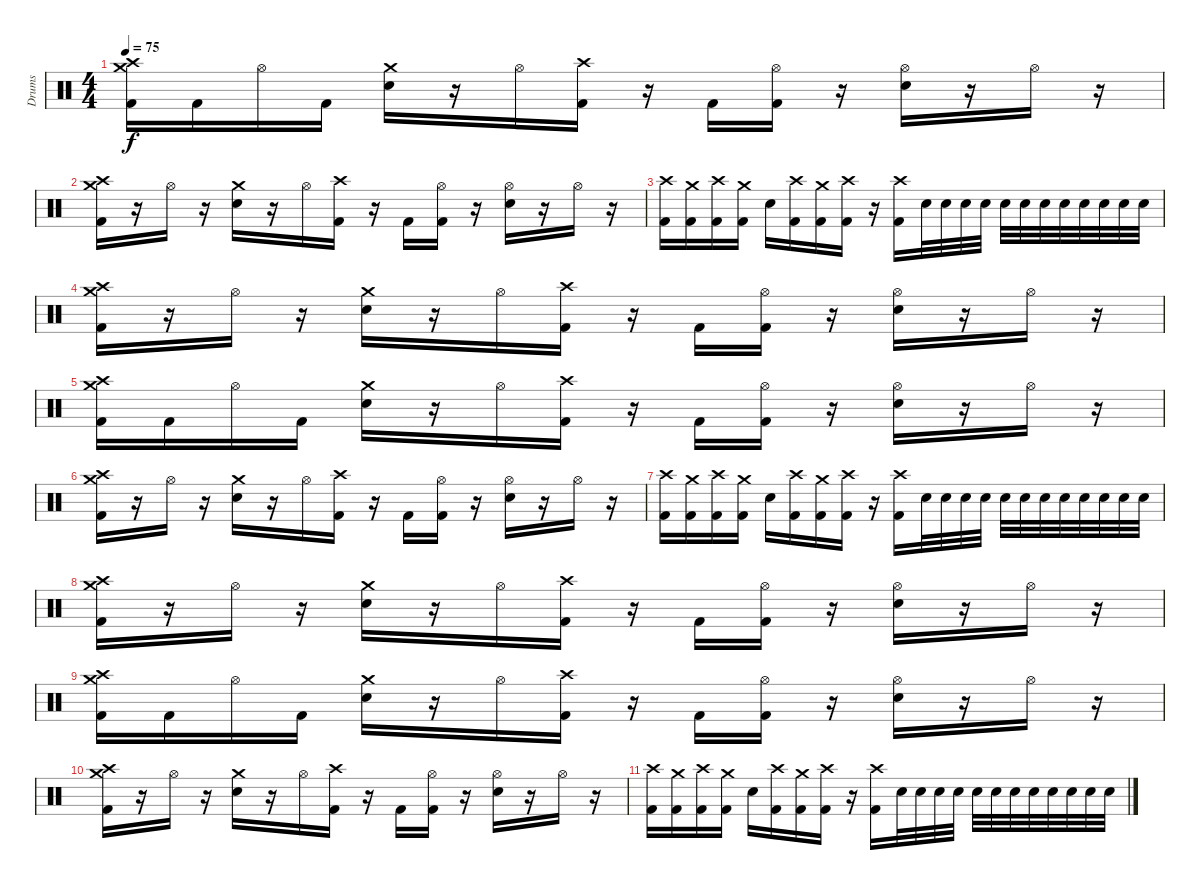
\track ("Drums" "Drums") {instrument percussion}
\staff {score}
\articulation defaults
\ts (4 4)
\tempo 75
\clef neutral
\ks c
("Crash medium (hit)" "Crash high (hit)" "Kick (hit) 2").16{dy f} "Kick (hit) 2".16 "Hi-Hat (open)".16 "Kick (hit) 2".16 ("Crash medium (hit)" "Electric Snare (hit)").16 r.16 "Hi-Hat (open)".16 ("Crash high (hit)" "Kick (hit) 2").16 r.16 "Kick (hit) 2".16 ("Hi-Hat (open)" "Kick (hit) 2").16 r.16 ("Hi-Hat (open)" "Electric Snare (hit)").16 r.16 "Hi-Hat (open)".16 r.16 |
("Crash medium (hit)" "Crash high (hit)" "Kick (hit) 2").16{volume 13} r.16 "Hi-Hat (open)".16 r.16 ("Crash medium (hit)" "Electric Snare (hit)").16 r.16 "Hi-Hat (open)".16 ("Crash high (hit)" "Kick (hit) 2").16 r.16 "Kick (hit) 2".16 ("Hi-Hat (open)" "Kick (hit) 2").16 r.16 ("Hi-Hat (open)" "Electric Snare (hit)").16 r.16 "Hi-Hat (open)".16 r.16 |
("Crash high (hit)" "Kick (hit) 2").16 ("Crash medium (hit)" "Kick (hit) 2").16 ("Crash high (hit)" "Kick (hit) 2").16 ("Crash medium (hit)" "Kick (hit) 2").16 "Electric Snare (hit)".16 ("Crash high (hit)" "Kick (hit) 2").16 ("Crash medium (hit)" "Kick (hit) 2").16 ("Crash high (hit)" "Kick (hit) 2").16 r.16 ("Crash high (hit)" "Kick (hit) 2").16 "Electric Snare (hit)".32 "Electric Snare (hit)".32 "Electric Snare (hit)".32 "Electric Snare (hit)".32 "Electric Snare (hit)".32 "Electric Snare (hit)".32 "Electric Snare (hit)".32 "Electric Snare (hit)".32 "Electric Snare (hit)".32 "Electric Snare (hit)".32 "Electric Snare (hit)".32 "Electric Snare (hit)".32 |
("Crash medium (hit)" "Crash high (hit)" "Kick (hit) 2").16{volume 13} r.16 "Hi-Hat (open)".16 r.16 ("Crash medium (hit)" "Electric Snare (hit)").16 r.16 "Hi-Hat (open)".16 ("Crash high (hit)" "Kick (hit) 2").16 r.16 "Kick (hit) 2".16 ("Hi-Hat (open)" "Kick (hit) 2").16 r.16 ("Hi-Hat (open)" "Electric Snare (hit)").16 r.16 "Hi-Hat (open)".16 r.16 |
("Crash medium (hit)" "Crash high (hit)" "Kick (hit) 2").16 "Kick (hit) 2".16 "Hi-Hat (open)".16 "Kick (hit) 2".16 ("Crash medium (hit)" "Electric Snare (hit)").16 r.16 "Hi-Hat (open)".16 ("Crash high (hit)" "Kick (hit) 2").16 r.16 "Kick (hit) 2".16 ("Hi-Hat (open)" "Kick (hit) 2").16 r.16 ("Hi-Hat (open)" "Electric Snare (hit)").16 r.16 "Hi-Hat (open)".16 r.16 |
("Crash medium (hit)" "Crash high (hit)" "Kick (hit) 2").16{volume 13} r.16 "Hi-Hat (open)".16 r.16 ("Crash medium (hit)" "Electric Snare (hit)").16 r.16 "Hi-Hat (open)".16 ("Crash high (hit)" "Kick (hit) 2").16 r.16 "Kick (hit) 2".16 ("Hi-Hat (open)" "Kick (hit) 2").16 r.16 ("Hi-Hat (open)" "Electric Snare (hit)").16 r.16 "Hi-Hat (open)".16 r.16 |
("Crash high (hit)" "Kick (hit) 2").16 ("Crash medium (hit)" "Kick (hit) 2").16 ("Crash high (hit)" "Kick (hit) 2").16 ("Crash medium (hit)" "Kick (hit) 2").16 "Electric Snare (hit)".16 ("Crash high (hit)" "Kick (hit) 2").16 ("Crash medium (hit)" "Kick (hit) 2").16 ("Crash high (hit)" "Kick (hit) 2").16 r.16 ("Crash high (hit)" "Kick (hit) 2").16 "Electric Snare (hit)".32 "Electric Snare (hit)".32 "Electric Snare (hit)".32 "Electric Snare (hit)".32 "Electric Snare (hit)".32 "Electric Snare (hit)".32 "Electric Snare (hit)".32 "Electric Snare (hit)".32 "Electric Snare (hit)".32 "Electric Snare (hit)".32 "Electric Snare (hit)".32 "Electric Snare (hit)".32 |
("Crash medium (hit)" "Crash high (hit)" "Kick (hit) 2").16{volume 0} r.16 "Hi-Hat (open)".16 r.16 ("Crash medium (hit)" "Electric Snare (hit)").16 r.16 "Hi-Hat (open)".16 ("Crash high (hit)" "Kick (hit) 2").16 r.16 "Kick (hit) 2".16 ("Hi-Hat (open)" "Kick (hit) 2").16 r.16 ("Hi-Hat (open)" "Electric Snare (hit)").16 r.16 "Hi-Hat (open)".16 r.16 |
("Crash medium (hit)" "Crash high (hit)" "Kick (hit) 2").16 "Kick (hit) 2".16 "Hi-Hat (open)".16 "Kick (hit) 2".16 ("Crash medium (hit)" "Electric Snare (hit)").16 r.16 "Hi-Hat (open)".16 ("Crash high (hit)" "Kick (hit) 2").16 r.16 "Kick (hit) 2".16 ("Hi-Hat (open)" "Kick (hit) 2").16 r.16 ("Hi-Hat (open)" "Electric Snare (hit)").16 r.16 "Hi-Hat (open)".16 r.16 |
("Crash medium (hit)" "Crash high (hit)" "Kick (hit) 2").16{volume 13} r.16 "Hi-Hat (open)".16 r.16 ("Crash medium (hit)" "Electric Snare (hit)").16 r.16 "Hi-Hat (open)".16 ("Crash high (hit)" "Kick (hit) 2").16 r.16 "Kick (hit) 2".16 ("Hi-Hat (open)" "Kick (hit) 2").16 r.16 ("Hi-Hat (open)" "Electric Snare (hit)").16 r.16 "Hi-Hat (open)".16 r.16 |
("Crash high (hit)" "Kick (hit) 2").16 ("Crash medium (hit)" "Kick (hit) 2").16 ("Crash high (hit)" "Kick (hit) 2").16 ("Crash medium (hit)" "Kick (hit) 2").16 "Electric Snare (hit)".16 ("Crash high (hit)" "Kick (hit) 2").16 ("Crash medium (hit)" "Kick (hit) 2").16 ("Crash high (hit)" "Kick (hit) 2").16 r.16 ("Crash high (hit)" "Kick (hit) 2").16 "Electric Snare (hit)".32 "Electric Snare (hit)".32 "Electric Snare (hit)".32 "Electric Snare (hit)".32 "Electric Snare (hit)".32 "Electric Snare (hit)".32 "Electric Snare (hit)".32 "Electric Snare (hit)".32 "Electric Snare (hit)".32 "Electric Snare (hit)".32 "Electric Snare (hit)".32 "Electric Snare (hit)".32
